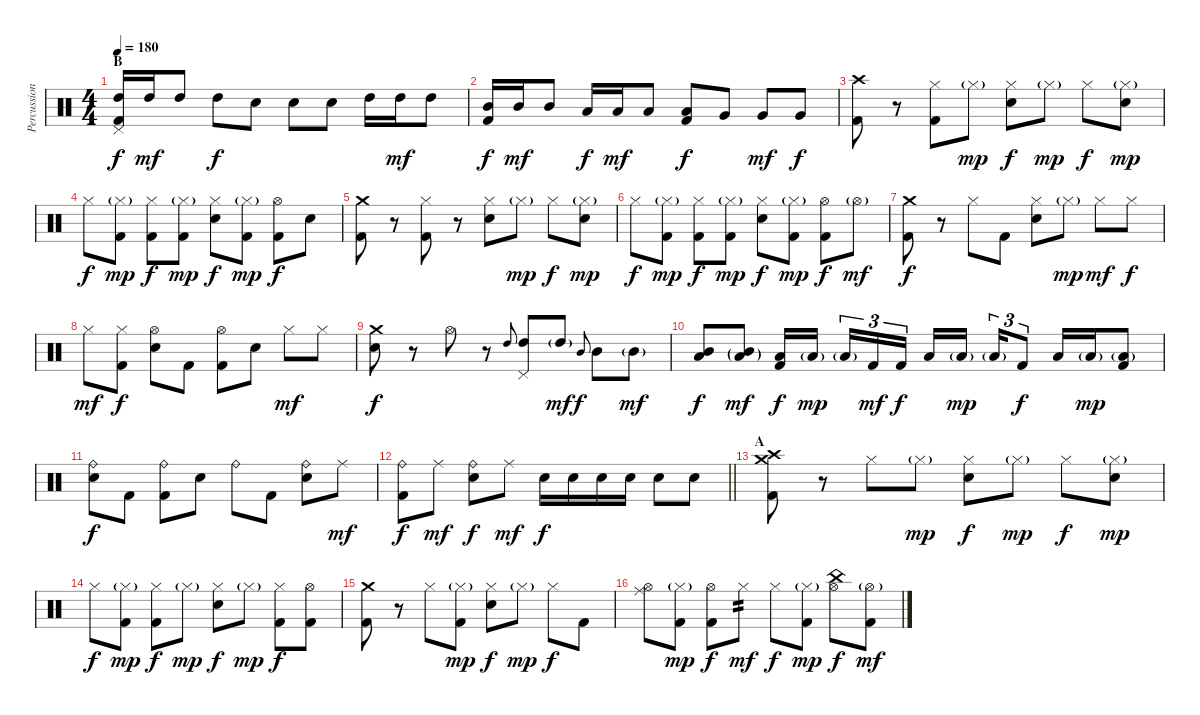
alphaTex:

\track ("Percussion" "Percussion") {instrument percussion}
\staff {score}
\articulation defaults
\ts (4 4)
\section ("" "B")
\tempo 180
\clef neutral
\ks c
("Pedal Hi-Hat (hit)" "High Tom (hit)" "Kick (hit) 2").16{dy f} "High Tom (hit)".16{dy mf} "High Tom (hit)".8 "High Tom (hit)".8{dy f} "Snare (hit) 2".8 "Snare (hit) 2".8 "Snare (hit) 2".8 "High Tom (hit)".16 "High Tom (hit)".16{dy mf} "High Tom (hit)".8 |
("Mid Tom (hit)" "Kick (hit) 2").16{dy f} "Mid Tom (hit)".16{dy mf} "Mid Tom (hit)".8 "Low Tom (hit)".16{dy f} "Low Tom (hit)".16{dy mf} "Low Tom (hit)".8 ("Low Tom (hit)" "Kick (hit) 2").8{dy f} "Very Low Tom (hit)".8 "Very Low Tom (hit)".8{dy mf} "Very Low Tom (hit)".8{dy f} |
("Crash high (hit)" "Kick (hit) 2").8 r.8 ("Hi-Hat (closed)" "Kick (hit) 2").8 "Hi-Hat (closed)"{g}.8{dy mp} ("Hi-Hat (closed)" "Snare (hit) 2").8{dy f} "Hi-Hat (closed)"{g}.8{dy mp} "Hi-Hat (closed)".8{dy f} ("Hi-Hat (closed)"{g} "Snare (hit) 2").8{dy mp} |
"Hi-Hat (closed)".8{dy f} ("Hi-Hat (closed)"{g} "Kick (hit) 2").8{dy mp} ("Hi-Hat (closed)" "Kick (hit) 2").8{dy f} ("Hi-Hat (closed)"{g} "Kick (hit) 2").8{dy mp} ("Hi-Hat (closed)" "Snare (hit) 2").8{dy f} ("Hi-Hat (closed)"{g} "Kick (hit) 2").8{dy mp} ("Hi-Hat (open)" "Kick (hit) 2").8{dy f} "Snare (hit) 2".8 |
("Crash medium (hit)" "Kick (hit) 2").8 r.8 ("Hi-Hat (closed)" "Kick (hit) 2").8 r.8 ("Hi-Hat (closed)" "Snare (hit) 2").8 "Hi-Hat (closed)"{g}.8{dy mp} "Hi-Hat (closed)".8{dy f} ("Hi-Hat (closed)"{g} "Snare (hit) 2").8{dy mp} |
"Hi-Hat (closed)".8{dy f} ("Hi-Hat (closed)"{g} "Kick (hit) 2").8{dy mp} ("Hi-Hat (closed)" "Kick (hit) 2").8{dy f} ("Hi-Hat (closed)"{g} "Kick (hit) 2").8{dy mp} ("Hi-Hat (closed)" "Snare (hit) 2").8{dy f} ("Hi-Hat (closed)"{g} "Kick (hit) 2").8{dy mp} ("Hi-Hat (open)" "Kick (hit) 2").8{dy f} "Hi-Hat (open)"{g}.8{dy mf} |
("Crash medium (hit)" "Kick (hit) 2").8{dy f} r.8 "Hi-Hat (closed)".8 "Kick (hit) 2".8 ("Hi-Hat (closed)" "Snare (hit) 2").8 "Hi-Hat (closed)"{g}.8{dy mp} "Hi-Hat (closed)".8{dy mf} "Hi-Hat (closed)".8{dy f} |
"Hi-Hat (closed)".8{dy mf} ("Hi-Hat (closed)" "Kick (hit) 2").8{dy f} ("Hi-Hat (open)" "Snare (hit) 2").8 "Kick (hit) 2".8 ("Hi-Hat (open)" "Kick (hit) 2").8 "Snare (hit) 2".8 "Hi-Hat (closed)".8{dy mf} "Hi-Hat (closed)".8 |
("Crash medium (hit)" "Snare (hit) 2").8{dy f} r.8 "Hi-Hat (open)".8 r.8 "High Tom (hit)".8{gr onbeat} ("Pedal Hi-Hat (hit)" "High Tom (hit)").8 "High Tom (hit)"{g}.8{dy mf} "Mid Tom (hit)".8{gr onbeat dy f} "Mid Tom (hit)".8 "Mid Tom (hit)"{g}.8{dy mf} |
("Mid Tom (hit)" "Low Tom (hit)").8{bu 60 dy f} ("Mid Tom (hit)"{g} "Low Tom (hit)"{g}).8{dy mf} ("Low Tom (hit)" "Kick (hit) 2").16{dy f} "Low Tom (hit)"{g}.16{dy mp beam splitsecondary} "Low Tom (hit)"{g}.16{tu (3 2)} "Kick (hit) 2".16{tu (3 2) dy mf} "Kick (hit) 2".16{tu (3 2) dy f} "Low Tom (hit)".16 "Low Tom (hit)"{g}.16{dy mp beam splitsecondary} "Low Tom (hit)"{g}.16{tu (3 2)} "Kick (hit) 2".8{tu (3 2) dy f} "Low Tom (hit)".16 "Low Tom (hit)"{g}.16{dy mp} ("Low Tom (hit)"{g} "Kick (hit) 2").8 |
("Ride (bell)" "Snare (hit) 2").8{dy f} "Kick (hit) 2".8 ("Ride (bell)" "Kick (hit) 2").8 "Snare (hit) 2".8 "Ride (bell)".8 "Kick (hit) 2".8 ("Ride (bell)" "Snare (hit) 2").8 "Ride (middle)".8{dy mf} |
\barLineRight lightlight
("Ride (bell)" "Kick (hit) 2").8{dy f} "Ride (middle)".8{dy mf} ("Ride (bell)" "Snare (hit) 2").8{dy f} "Ride (middle)".8{dy mf} "Snare (hit) 2".16{dy f} "Snare (hit) 2".16 "Snare (hit) 2".16 "Snare (hit) 2".16 "Snare (hit) 2".8 "Snare (hit) 2".8 |
\section ("" "A")
("Crash high (hit)" "Crash medium (hit)" "Kick (hit) 2").8 r.8 "Hi-Hat (closed)".8 "Hi-Hat (closed)"{g}.8{dy mp} ("Hi-Hat (closed)" "Snare (hit) 2").8{dy f} "Hi-Hat (closed)"{g}.8{dy mp} "Hi-Hat (closed)".8{dy f} ("Hi-Hat (closed)"{g} "Snare (hit) 2").8{dy mp} |
"Hi-Hat (closed)".8{dy f} ("Hi-Hat (closed)"{g} "Kick (hit) 2").8{dy mp} ("Hi-Hat (closed)" "Kick (hit) 2").8{dy f} "Hi-Hat (closed)"{g}.8{dy mp} ("Hi-Hat (closed)" "Snare (hit) 2").8{dy f} "Hi-Hat (closed)"{g}.8{dy mp} ("Hi-Hat (closed)" "Kick (hit) 2").8{dy f} ("Hi-Hat (open)" "Kick (hit) 2").8 |
("Crash medium (hit)" "Kick (hit) 2").8 r.8 "Hi-Hat (closed)".8 ("Hi-Hat (closed)"{g} "Kick (hit) 2").8{dy mp} ("Hi-Hat (closed)" "Snare (hit) 2").8{dy f} "Hi-Hat (closed)"{g}.8{dy mp} "Hi-Hat (closed)".8{dy f} "Kick (hit) 2".8 |
("Ride (middle)" "Hi-Hat (open)").8 ("Hi-Hat (closed)"{g} "Kick (hit) 2").8{dy mp} ("Hi-Hat (open)" "Kick (hit) 2").8{dy f} "Hi-Hat (closed)".8{tp 2 dy mf} "Hi-Hat (closed)".8{dy f} ("Hi-Hat (closed)"{g} "Kick (hit) 2").8{dy mp} ("China (hit)" "Hi-Hat (open)").8{dy f} ("Hi-Hat (open)"{g} "Kick (hit) 2").8{dy mf}
